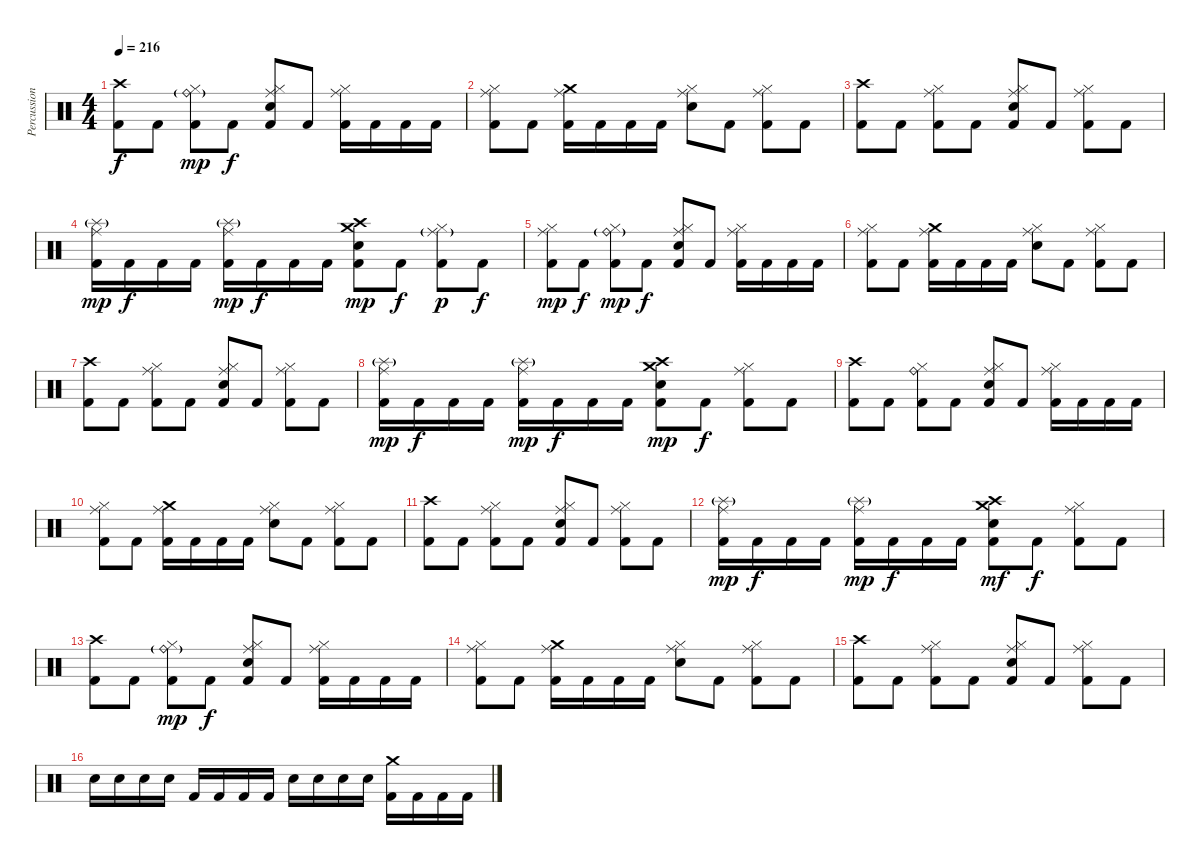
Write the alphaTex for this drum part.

\track ("Percussions" "Percussion") {instrument percussion}
\staff {score}
\articulation defaults
\ts (4 4)
\tempo 216
\clef neutral
\ks c
("Crash high (hit)" "Kick (hit) 2").8{dy f} "Kick (hit) 2".8 ("Hi-Hat (closed)" "Ride (bell)"{g} "Kick (hit) 2").8{dy mp} "Kick (hit) 2".8{dy f} ("Hi-Hat (closed)" "Ride (middle)" "Electric Snare (hit)" "Kick (hit) 2").8 "Kick (hit) 2".8 ("Hi-Hat (closed)" "Ride (middle)" "Kick (hit) 2").16 "Kick (hit) 2".16 "Kick (hit) 2".16 "Kick (hit) 2".16 |
("Hi-Hat (closed)" "Ride (middle)" "Kick (hit) 2").8 "Kick (hit) 2".8 ("Crash medium (hit)" "Ride (middle)" "Kick (hit) 2").16 "Kick (hit) 2".16 "Kick (hit) 2".16 "Kick (hit) 2".16 ("Hi-Hat (closed)" "Ride (middle)" "Electric Snare (hit)").8 "Kick (hit) 2".8 ("Hi-Hat (closed)" "Ride (middle)" "Kick (hit) 2").8 "Kick (hit) 2".8 |
("Crash high (hit)" "Kick (hit) 2").8 "Kick (hit) 2".8 ("Hi-Hat (closed)" "Ride (middle)" "Kick (hit) 2").8 "Kick (hit) 2".8 ("Hi-Hat (closed)" "Ride (middle)" "Electric Snare (hit)" "Kick (hit) 2").8 "Kick (hit) 2".8 ("Hi-Hat (closed)" "Ride (middle)" "Kick (hit) 2").8 "Kick (hit) 2".8 |
("Splash (hit)"{g} "Ride (middle)" "Kick (hit) 2").16{dy mp} "Kick (hit) 2".16{dy f} "Kick (hit) 2".16 "Kick (hit) 2".16 ("Splash (hit)"{g} "Ride (middle)" "Kick (hit) 2").16{dy mp} "Kick (hit) 2".16{dy f} "Kick (hit) 2".16 "Kick (hit) 2".16 ("Crash medium (hit)" "Crash high (hit)" "Electric Snare (hit)" "Kick (hit) 2").8{dy mp} "Kick (hit) 2".8{dy f} ("Hi-Hat (closed)" "Ride (middle)"{g} "Kick (hit) 2").8{dy p} "Kick (hit) 2".8{dy f} |
("Hi-Hat (closed)" "Ride (middle)" "Kick (hit) 2").8{dy mp} "Kick (hit) 2".8{dy f} ("Hi-Hat (closed)" "Ride (bell)"{g} "Kick (hit) 2").8{dy mp} "Kick (hit) 2".8{dy f} ("Hi-Hat (closed)" "Ride (middle)" "Electric Snare (hit)" "Kick (hit) 2").8 "Kick (hit) 2".8 ("Hi-Hat (closed)" "Ride (middle)" "Kick (hit) 2").16 "Kick (hit) 2".16 "Kick (hit) 2".16 "Kick (hit) 2".16 |
("Hi-Hat (closed)" "Ride (middle)" "Kick (hit) 2").8 "Kick (hit) 2".8 ("Crash medium (hit)" "Ride (middle)" "Kick (hit) 2").16 "Kick (hit) 2".16 "Kick (hit) 2".16 "Kick (hit) 2".16 ("Hi-Hat (closed)" "Ride (middle)" "Electric Snare (hit)").8 "Kick (hit) 2".8 ("Hi-Hat (closed)" "Ride (middle)" "Kick (hit) 2").8 "Kick (hit) 2".8 |
("Crash high (hit)" "Kick (hit) 2").8 "Kick (hit) 2".8 ("Hi-Hat (closed)" "Ride (middle)" "Kick (hit) 2").8 "Kick (hit) 2".8 ("Hi-Hat (closed)" "Ride (middle)" "Electric Snare (hit)" "Kick (hit) 2").8 "Kick (hit) 2".8 ("Hi-Hat (closed)" "Ride (middle)" "Kick (hit) 2").8 "Kick (hit) 2".8 |
("Splash (hit)"{g} "Ride (middle)" "Kick (hit) 2").16{dy mp} "Kick (hit) 2".16{dy f} "Kick (hit) 2".16 "Kick (hit) 2".16 ("Splash (hit)"{g} "Ride (middle)" "Kick (hit) 2").16{dy mp} "Kick (hit) 2".16{dy f} "Kick (hit) 2".16 "Kick (hit) 2".16 ("Crash medium (hit)" "Crash high (hit)" "Electric Snare (hit)" "Kick (hit) 2").8{dy mp} "Kick (hit) 2".8{dy f} ("Hi-Hat (closed)" "Ride (middle)" "Kick (hit) 2").8 "Kick (hit) 2".8 |
("Crash high (hit)" "Kick (hit) 2").8 "Kick (hit) 2".8 ("Hi-Hat (closed)" "Ride (bell)" "Kick (hit) 2").8 "Kick (hit) 2".8 ("Hi-Hat (closed)" "Ride (middle)" "Electric Snare (hit)" "Kick (hit) 2").8 "Kick (hit) 2".8 ("Hi-Hat (closed)" "Ride (middle)" "Kick (hit) 2").16 "Kick (hit) 2".16 "Kick (hit) 2".16 "Kick (hit) 2".16 |
("Hi-Hat (closed)" "Ride (middle)" "Kick (hit) 2").8 "Kick (hit) 2".8 ("Crash medium (hit)" "Ride (middle)" "Kick (hit) 2").16 "Kick (hit) 2".16 "Kick (hit) 2".16 "Kick (hit) 2".16 ("Hi-Hat (closed)" "Ride (middle)" "Electric Snare (hit)").8 "Kick (hit) 2".8 ("Hi-Hat (closed)" "Ride (middle)" "Kick (hit) 2").8 "Kick (hit) 2".8 |
("Crash high (hit)" "Kick (hit) 2").8 "Kick (hit) 2".8 ("Hi-Hat (closed)" "Ride (middle)" "Kick (hit) 2").8 "Kick (hit) 2".8 ("Hi-Hat (closed)" "Ride (middle)" "Electric Snare (hit)" "Kick (hit) 2").8 "Kick (hit) 2".8 ("Hi-Hat (closed)" "Ride (middle)" "Kick (hit) 2").8 "Kick (hit) 2".8 |
("Splash (hit)"{g} "Ride (middle)" "Kick (hit) 2").16{dy mp} "Kick (hit) 2".16{dy f} "Kick (hit) 2".16 "Kick (hit) 2".16 ("Splash (hit)"{g} "Ride (middle)" "Kick (hit) 2").16{dy mp} "Kick (hit) 2".16{dy f} "Kick (hit) 2".16 "Kick (hit) 2".16 ("Crash medium (hit)" "Crash high (hit)" "Electric Snare (hit)" "Kick (hit) 2").8{dy mf} "Kick (hit) 2".8{dy f} ("Hi-Hat (closed)" "Ride (middle)" "Kick (hit) 2").8 "Kick (hit) 2".8 |
("Crash high (hit)" "Kick (hit) 2").8 "Kick (hit) 2".8 ("Hi-Hat (closed)" "Ride (bell)"{g} "Kick (hit) 2").8{dy mp} "Kick (hit) 2".8{dy f} ("Hi-Hat (closed)" "Ride (middle)" "Electric Snare (hit)" "Kick (hit) 2").8 "Kick (hit) 2".8 ("Hi-Hat (closed)" "Ride (middle)" "Kick (hit) 2").16 "Kick (hit) 2".16 "Kick (hit) 2".16 "Kick (hit) 2".16 |
("Hi-Hat (closed)" "Ride (middle)" "Kick (hit) 2").8 "Kick (hit) 2".8 ("Crash medium (hit)" "Ride (middle)" "Kick (hit) 2").16 "Kick (hit) 2".16 "Kick (hit) 2".16 "Kick (hit) 2".16 ("Hi-Hat (closed)" "Ride (middle)" "Electric Snare (hit)").8 "Kick (hit) 2".8 ("Hi-Hat (closed)" "Ride (middle)" "Kick (hit) 2").8 "Kick (hit) 2".8 |
("Crash high (hit)" "Kick (hit) 2").8 "Kick (hit) 2".8 ("Hi-Hat (closed)" "Ride (middle)" "Kick (hit) 2").8 "Kick (hit) 2".8 ("Hi-Hat (closed)" "Ride (middle)" "Electric Snare (hit)" "Kick (hit) 2").8 "Kick (hit) 2".8 ("Hi-Hat (closed)" "Ride (middle)" "Kick (hit) 2").8 "Kick (hit) 2".8 |
"Electric Snare (hit)".16 "Electric Snare (hit)".16 "Electric Snare (hit)".16 "Electric Snare (hit)".16 "Kick (hit) 2".16 "Kick (hit) 2".16 "Kick (hit) 2".16 "Kick (hit) 2".16 "Electric Snare (hit)".16 "Electric Snare (hit)".16 "Electric Snare (hit)".16 "Electric Snare (hit)".16 ("Crash medium (hit)" "Kick (hit) 2").16 "Kick (hit) 2".16 "Kick (hit) 2".16 "Kick (hit) 2".16
